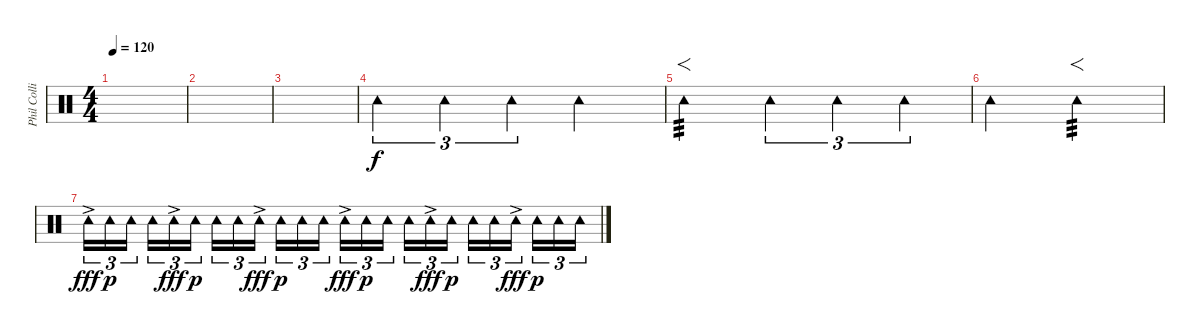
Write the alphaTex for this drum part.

\track ("Phil Collins" "Phil Colli") {instrument percussion}
\staff {score}
\articulation defaults
\ts (4 4)
\tempo 120
\clef neutral
\ks c
|
|
|
"Tambourine (hit)".4{tu (3 2)} "Tambourine (hit)".4{tu (3 2)} "Tambourine (hit)".4{tu (3 2)} "Tambourine (hit)".2 |
"Tambourine (hit)".2{f tp 3} "Tambourine (hit)".4{tu (3 2)} "Tambourine (hit)".4{tu (3 2)} "Tambourine (hit)".4{tu (3 2)} |
"Tambourine (hit)".2 "Tambourine (hit)".2{f tp 3 dy f} |
"Tambourine (hit)"{ac}.16{tu (3 2) dy fff} "Tambourine (hit)".16{tu (3 2) dy p} "Tambourine (hit)".16{tu (3 2)} "Tambourine (hit)".16{tu (3 2)} "Tambourine (hit)"{ac}.16{tu (3 2) dy fff} "Tambourine (hit)".16{tu (3 2) dy p} "Tambourine (hit)".16{tu (3 2)} "Tambourine (hit)".16{tu (3 2)} "Tambourine (hit)"{ac}.16{tu (3 2) dy fff} "Tambourine (hit)".16{tu (3 2) dy p} "Tambourine (hit)".16{tu (3 2)} "Tambourine (hit)".16{tu (3 2)} "Tambourine (hit)"{ac}.16{tu (3 2) dy fff} "Tambourine (hit)".16{tu (3 2) dy p} "Tambourine (hit)".16{tu (3 2)} "Tambourine (hit)".16{tu (3 2)} "Tambourine (hit)"{ac}.16{tu (3 2) dy fff} "Tambourine (hit)".16{tu (3 2) dy p} "Tambourine (hit)".16{tu (3 2)} "Tambourine (hit)".16{tu (3 2)} "Tambourine (hit)"{ac}.16{tu (3 2) dy fff} "Tambourine (hit)".16{tu (3 2) dy p} "Tambourine (hit)".16{tu (3 2)} "Tambourine (hit)".16{tu (3 2)}
